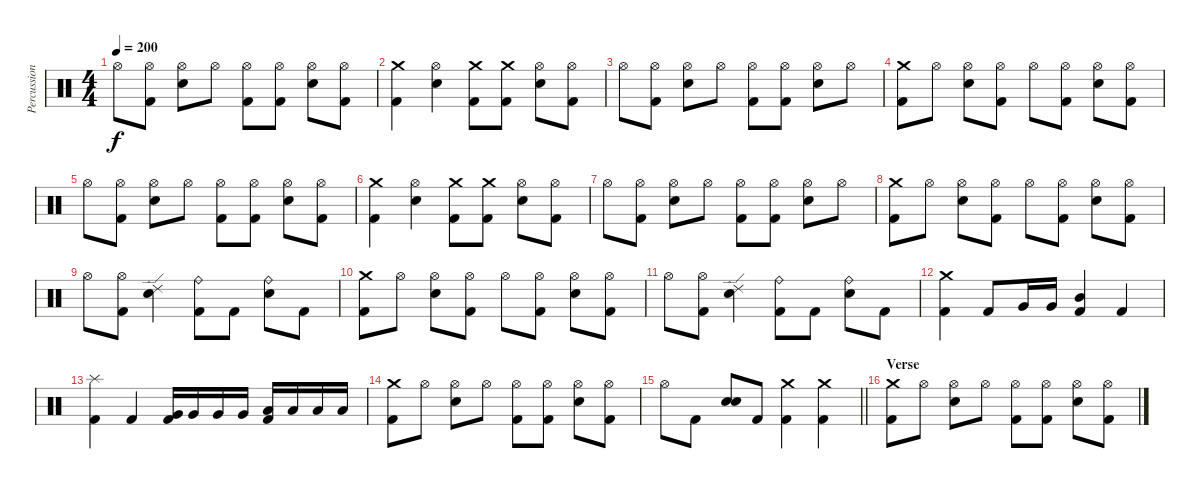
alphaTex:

\track ("Percussion" "Percussion") {instrument percussion}
\staff {score}
\articulation defaults
\ts (4 4)
\tempo 200
\clef neutral
\ks c "Hi-Hat (open)".8{dy f}
("Hi-Hat (open)" "Kick (hit) 2").8 ("Hi-Hat (open)" "Electric Snare (hit)").8 "Hi-Hat (open)".8 ("Hi-Hat (open)" "Kick (hit) 2").8 ("Hi-Hat (open)" "Kick (hit) 2").8 ("Hi-Hat (open)" "Electric Snare (hit)").8 ("Hi-Hat (open)" "Kick (hit) 2").8 |
("Crash medium (hit)" "Kick (hit) 2").4 ("Hi-Hat (open)" "Electric Snare (hit)").4 ("Crash medium (hit)" "Kick (hit) 2").8 ("Crash medium (hit)" "Kick (hit) 2").8 ("Hi-Hat (open)" "Electric Snare (hit)").8 ("Hi-Hat (open)" "Kick (hit) 2").8 |
"Hi-Hat (open)".8 ("Hi-Hat (open)" "Kick (hit) 2").8 ("Hi-Hat (open)" "Electric Snare (hit)").8 "Hi-Hat (open)".8 ("Hi-Hat (open)" "Kick (hit) 2").8 ("Hi-Hat (open)" "Kick (hit) 2").8 ("Hi-Hat (open)" "Electric Snare (hit)").8 "Hi-Hat (open)".8 |
("Crash medium (hit)" "Kick (hit) 2").8 "Hi-Hat (open)".8 ("Hi-Hat (open)" "Electric Snare (hit)").8 ("Hi-Hat (open)" "Kick (hit) 2").8 "Hi-Hat (open)".8 ("Hi-Hat (open)" "Kick (hit) 2").8 ("Hi-Hat (open)" "Electric Snare (hit)").8 ("Hi-Hat (open)" "Kick (hit) 2").8 |
"Hi-Hat (open)".8 ("Hi-Hat (open)" "Kick (hit) 2").8 ("Hi-Hat (open)" "Electric Snare (hit)").8 "Hi-Hat (open)".8 ("Hi-Hat (open)" "Kick (hit) 2").8 ("Hi-Hat (open)" "Kick (hit) 2").8 ("Hi-Hat (open)" "Electric Snare (hit)").8 ("Hi-Hat (open)" "Kick (hit) 2").8 |
("Crash medium (hit)" "Kick (hit) 2").4 ("Hi-Hat (open)" "Electric Snare (hit)").4 ("Crash medium (hit)" "Kick (hit) 2").8 ("Crash medium (hit)" "Kick (hit) 2").8 ("Hi-Hat (open)" "Electric Snare (hit)").8 ("Hi-Hat (open)" "Kick (hit) 2").8 |
"Hi-Hat (open)".8 ("Hi-Hat (open)" "Kick (hit) 2").8 ("Hi-Hat (open)" "Electric Snare (hit)").8 "Hi-Hat (open)".8 ("Hi-Hat (open)" "Kick (hit) 2").8 ("Hi-Hat (open)" "Kick (hit) 2").8 ("Hi-Hat (open)" "Electric Snare (hit)").8 "Hi-Hat (open)".8 |
("Crash medium (hit)" "Kick (hit) 2").8 "Hi-Hat (open)".8 ("Hi-Hat (open)" "Electric Snare (hit)").8 ("Hi-Hat (open)" "Kick (hit) 2").8 "Hi-Hat (open)".8 ("Hi-Hat (open)" "Kick (hit) 2").8 ("Hi-Hat (open)" "Electric Snare (hit)").8 ("Hi-Hat (open)" "Kick (hit) 2").8 |
"Hi-Hat (open)".8 ("Hi-Hat (open)" "Kick (hit) 2").8 ("Ride (edge) 2" "Electric Snare (hit)").4 ("Ride (bell)" "Kick (hit) 2").8 "Kick (hit) 2".8 ("Ride (bell)" "Electric Snare (hit)").8 "Kick (hit) 2".8 |
("Crash medium (hit)" "Kick (hit) 2").8 "Hi-Hat (open)".8 ("Hi-Hat (open)" "Electric Snare (hit)").8 ("Hi-Hat (open)" "Kick (hit) 2").8 "Hi-Hat (open)".8 ("Hi-Hat (open)" "Kick (hit) 2").8 ("Hi-Hat (open)" "Electric Snare (hit)").8 ("Hi-Hat (open)" "Kick (hit) 2").8 |
"Hi-Hat (open)".8 ("Hi-Hat (open)" "Kick (hit) 2").8 ("Ride (edge) 2" "Electric Snare (hit)").4 ("Ride (bell)" "Kick (hit) 2").8 "Kick (hit) 2".8 ("Ride (bell)" "Electric Snare (hit)").8 "Kick (hit) 2".8 |
("Crash medium (hit)" "Kick (hit) 2").4 "Kick (hit) 2".8 "Very Low Tom (hit)".16 "Very Low Tom (hit)".16 ("Mid Tom (hit)" "Kick (hit) 2").4 "Kick (hit) 2".4 |
("Splash (hit)" "Kick (hit) 2").4 "Kick (hit) 2".4 ("Very Low Tom (hit)" "Kick (hit) 2").16 "Very Low Tom (hit)".16 "Very Low Tom (hit)".16 "Very Low Tom (hit)".16 ("Low Floor Tom (hit)" "Kick (hit) 2").16 "Low Floor Tom (hit)".16 "Low Floor Tom (hit)".16 "Low Floor Tom (hit)".16 |
("Crash medium (hit)" "Kick (hit) 2").8 "Hi-Hat (open)".8 ("Hi-Hat (open)" "Electric Snare (hit)").8 "Hi-Hat (open)".8 ("Hi-Hat (open)" "Kick (hit) 2").8 ("Hi-Hat (open)" "Kick (hit) 2").8 ("Hi-Hat (open)" "Electric Snare (hit)").8 ("Hi-Hat (open)" "Kick (hit) 2").8 |
\barLineRight lightlight "Hi-Hat (open)".8 "Kick (hit) 2".8
("Electric Snare (hit)" "Electric Snare (hit)").8 "Kick (hit) 2".8 ("Crash medium (hit)" "Kick (hit) 2").4 ("Crash medium (hit)" "Kick (hit) 2").4 |
\section ("" "Verse")
("Crash medium (hit)" "Kick (hit) 2").8 "Hi-Hat (open)".8 ("Hi-Hat (open)" "Electric Snare (hit)").8 "Hi-Hat (open)".8 ("Hi-Hat (open)" "Kick (hit) 2").8 ("Hi-Hat (open)" "Kick (hit) 2").8 ("Hi-Hat (open)" "Electric Snare (hit)").8 ("Hi-Hat (open)" "Kick (hit) 2").8
